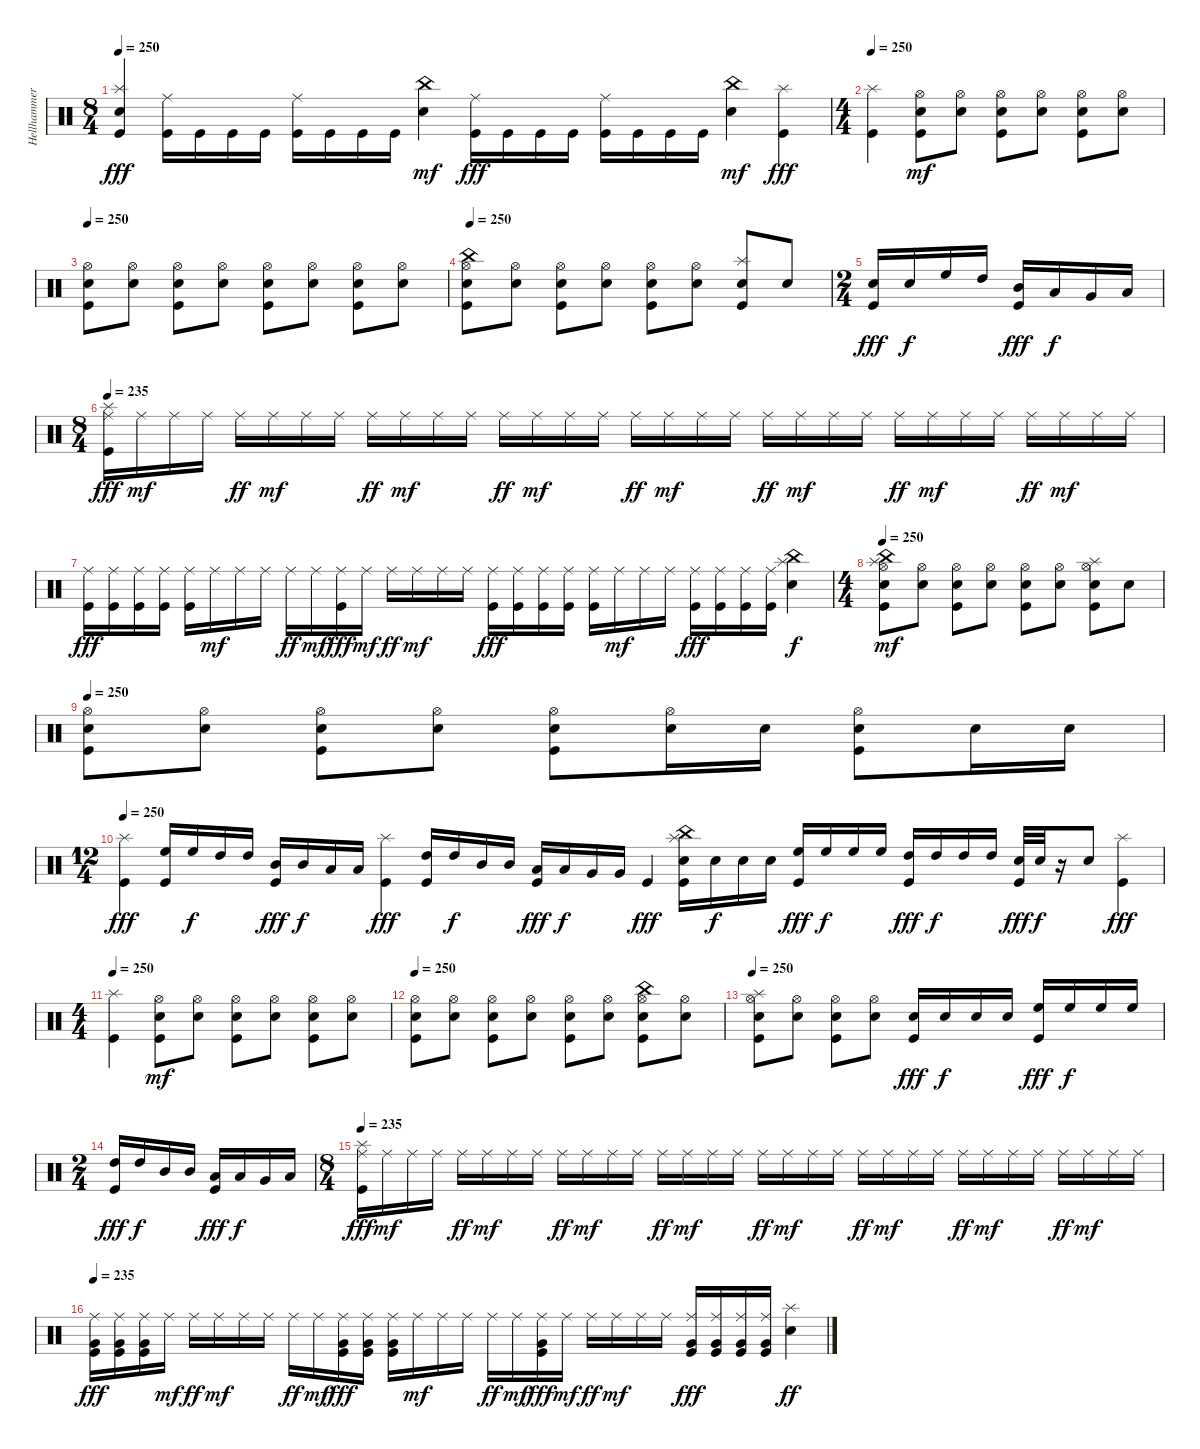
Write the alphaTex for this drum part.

\track ("Hellhammer" "Hellhammer") {instrument percussion}
\staff {score}
\articulation defaults
\ts (8 4)
\tempo 250
\clef neutral
\ks c
("Electric Snare (hit)" "Splash (hit)" "Kick (hit)").4{dy fff} ("Ride (middle)" "Kick (hit)").16 "Kick (hit)".16 "Kick (hit)".16 "Kick (hit)".16 ("Ride (middle)" "Kick (hit)").16 "Kick (hit)".16 "Kick (hit)".16 "Kick (hit)".16 ("China (hit)" "Electric Snare (hit)").4{dy mf} ("Ride (middle)" "Kick (hit)").16{dy fff} "Kick (hit)".16 "Kick (hit)".16 "Kick (hit)".16 ("Ride (middle)" "Kick (hit)").16 "Kick (hit)".16 "Kick (hit)".16 "Kick (hit)".16 ("China (hit)" "Electric Snare (hit)").4{dy mf} ("Splash (hit)" "Kick (hit)").4{dy fff} |
\ts (4 4)
\tempo 250
("Splash (hit)" "Kick (hit)").4 ("Hi-Hat (open)" "Kick (hit)" "Electric Snare (hit)").8{dy mf} ("Hi-Hat (open)" "Electric Snare (hit)").8 ("Hi-Hat (open)" "Kick (hit)" "Electric Snare (hit)").8 ("Hi-Hat (open)" "Electric Snare (hit)").8 ("Hi-Hat (open)" "Kick (hit)" "Electric Snare (hit)").8 ("Hi-Hat (open)" "Electric Snare (hit)").8 |
\tempo 250
("Hi-Hat (open)" "Kick (hit)" "Electric Snare (hit)").8 ("Hi-Hat (open)" "Electric Snare (hit)").8 ("Hi-Hat (open)" "Kick (hit)" "Electric Snare (hit)").8 ("Hi-Hat (open)" "Electric Snare (hit)").8 ("Hi-Hat (open)" "Kick (hit)" "Electric Snare (hit)").8 ("Hi-Hat (open)" "Electric Snare (hit)").8 ("Hi-Hat (open)" "Kick (hit)" "Electric Snare (hit)").8 ("Hi-Hat (open)" "Electric Snare (hit)").8 |
\tempo 250
("China (hit)" "Hi-Hat (open)" "Kick (hit)" "Electric Snare (hit)").8 ("Hi-Hat (open)" "Electric Snare (hit)").8 ("Hi-Hat (open)" "Kick (hit)" "Electric Snare (hit)").8 ("Hi-Hat (open)" "Electric Snare (hit)").8 ("Hi-Hat (open)" "Kick (hit)" "Electric Snare (hit)").8 ("Hi-Hat (open)" "Electric Snare (hit)").8 ("Splash (hit)" "Kick (hit)" "Electric Snare (hit)").8 "Electric Snare (hit)".8 |
\ts (2 4)
("Snare (hit) 2" "Kick (hit)").16{dy fff} "Snare (hit) 2".16{dy f} "High Floor Tom (hit)".16 "High Tom (hit)".16 ("Mid Tom (hit)" "Kick (hit)").16{dy fff} "Low Tom (hit)".16{dy f} "Very Low Tom (hit)".16 "Low Floor Tom (hit)".16 |
\ts (8 4)
\tempo 235
("Ride (middle)" "Splash (hit)" "Kick (hit)").16{dy fff} "Ride (middle)".16{dy mf} "Ride (middle)".16 "Ride (middle)".16 "Ride (middle)".16{dy ff} "Ride (middle)".16{dy mf} "Ride (middle)".16 "Ride (middle)".16 "Ride (middle)".16{dy ff} "Ride (middle)".16{dy mf} "Ride (middle)".16 "Ride (middle)".16 "Ride (middle)".16{dy ff} "Ride (middle)".16{dy mf} "Ride (middle)".16 "Ride (middle)".16 "Ride (middle)".16{dy ff} "Ride (middle)".16{dy mf} "Ride (middle)".16 "Ride (middle)".16 "Ride (middle)".16{dy ff} "Ride (middle)".16{dy mf} "Ride (middle)".16 "Ride (middle)".16 "Ride (middle)".16{dy ff} "Ride (middle)".16{dy mf} "Ride (middle)".16 "Ride (middle)".16 "Ride (middle)".16{dy ff} "Ride (middle)".16{dy mf} "Ride (middle)".16 "Ride (middle)".16 |
("Ride (middle)" "Kick (hit)").16{dy fff} ("Ride (middle)" "Kick (hit)").16 ("Ride (middle)" "Kick (hit)").16 ("Ride (middle)" "Kick (hit)").16 ("Ride (middle)" "Kick (hit)").16 "Ride (middle)".16{dy mf} "Ride (middle)".16 "Ride (middle)".16 "Ride (middle)".16{dy ff} "Ride (middle)".16{dy mf} ("Ride (middle)" "Kick (hit)").16{dy fff} "Ride (middle)".16{dy mf} "Ride (middle)".16{dy ff} "Ride (middle)".16{dy mf} "Ride (middle)".16 "Ride (middle)".16 ("Ride (middle)" "Kick (hit)").16{dy fff} ("Ride (middle)" "Kick (hit)").16 ("Ride (middle)" "Kick (hit)").16 ("Ride (middle)" "Kick (hit)").16 ("Ride (middle)" "Kick (hit)").16 "Ride (middle)".16{dy mf} "Ride (middle)".16 "Ride (middle)".16 ("Ride (middle)" "Kick (hit)").16{dy fff} ("Ride (middle)" "Kick (hit)").16 ("Ride (middle)" "Kick (hit)").16 ("Ride (middle)" "Kick (hit)").16 ("China (hit)" "Splash (hit)" "Electric Snare (hit)").4{dy f} |
\ts (4 4)
\tempo 250
("Splash (hit)" "China (hit)" "Hi-Hat (open)" "Kick (hit)" "Electric Snare (hit)").8{dy mf} ("Hi-Hat (open)" "Electric Snare (hit)").8 ("Hi-Hat (open)" "Kick (hit)" "Electric Snare (hit)").8 ("Hi-Hat (open)" "Electric Snare (hit)").8 ("Hi-Hat (open)" "Kick (hit)" "Electric Snare (hit)").8 ("Hi-Hat (open)" "Electric Snare (hit)").8 ("Hi-Hat (open)" "Splash (hit)" "Kick (hit)" "Electric Snare (hit)").8 "Electric Snare (hit)".8 |
\tempo 250
("Hi-Hat (open)" "Kick (hit)" "Electric Snare (hit)").8 ("Hi-Hat (open)" "Electric Snare (hit)").8 ("Hi-Hat (open)" "Kick (hit)" "Electric Snare (hit)").8 ("Hi-Hat (open)" "Electric Snare (hit)").8 ("Hi-Hat (open)" "Kick (hit)" "Electric Snare (hit)").8 ("Hi-Hat (open)" "Electric Snare (hit)").16 "Electric Snare (hit)".16 ("Hi-Hat (open)" "Kick (hit)" "Electric Snare (hit)").8 "Electric Snare (hit)".16 "Electric Snare (hit)".16 |
\ts (12 4)
\tempo 250
("Splash (hit)" "Kick (hit)").4{dy fff} ("High Floor Tom (hit)" "Kick (hit)").16 "High Floor Tom (hit)".16{dy f} "High Tom (hit)".16 "High Tom (hit)".16 ("Mid Tom (hit)" "Kick (hit)").16{dy fff} "Mid Tom (hit)".16{dy f} "Low Tom (hit)".16 "Low Tom (hit)".16 ("Splash (hit)" "Kick (hit)").4{dy fff} ("High Tom (hit)" "Kick (hit)").16 "High Tom (hit)".16{dy f} "Mid Tom (hit)".16 "Mid Tom (hit)".16 ("Low Tom (hit)" "Kick (hit)").16{dy fff} "Low Tom (hit)".16{dy f} "Very Low Tom (hit)".16 "Very Low Tom (hit)".16 "Kick (hit)".4{dy fff} ("China (hit)" "Splash (hit)" "Snare (hit) 2" "Kick (hit)").16 "Snare (hit) 2".16{dy f} "Snare (hit) 2".16 "Snare (hit) 2".16 ("High Floor Tom (hit)" "Kick (hit)").16{dy fff} "High Floor Tom (hit)".16{dy f} "High Floor Tom (hit)".16 "High Floor Tom (hit)".16 ("High Tom (hit)" "Kick (hit)").16{dy fff} "High Tom (hit)".16{dy f} "High Tom (hit)".16 "High Tom (hit)".16 ("Snare (hit) 2" "Kick (hit)").32{dy fff} "Snare (hit) 2".32{dy f} r.16 "Snare (hit) 2".8 ("Splash (hit)" "Kick (hit)").4{dy fff} |
\ts (4 4)
\tempo 250
("Splash (hit)" "Kick (hit)").4 ("Hi-Hat (open)" "Kick (hit)" "Electric Snare (hit)").8{dy mf} ("Hi-Hat (open)" "Electric Snare (hit)").8 ("Hi-Hat (open)" "Kick (hit)" "Electric Snare (hit)").8 ("Hi-Hat (open)" "Electric Snare (hit)").8 ("Hi-Hat (open)" "Kick (hit)" "Electric Snare (hit)").8 ("Hi-Hat (open)" "Electric Snare (hit)").8 |
\tempo 250
("Hi-Hat (open)" "Kick (hit)" "Electric Snare (hit)").8 ("Hi-Hat (open)" "Electric Snare (hit)").8 ("Hi-Hat (open)" "Kick (hit)" "Electric Snare (hit)").8 ("Hi-Hat (open)" "Electric Snare (hit)").8 ("Hi-Hat (open)" "Kick (hit)" "Electric Snare (hit)").8 ("Hi-Hat (open)" "Electric Snare (hit)").8 ("China (hit)" "Hi-Hat (open)" "Kick (hit)" "Electric Snare (hit)").8 ("Hi-Hat (open)" "Electric Snare (hit)").8 |
\tempo 250
("Splash (hit)" "Hi-Hat (open)" "Kick (hit)" "Electric Snare (hit)").8 ("Hi-Hat (open)" "Electric Snare (hit)").8 ("Hi-Hat (open)" "Kick (hit)" "Electric Snare (hit)").8 ("Hi-Hat (open)" "Electric Snare (hit)").8 ("Snare (hit) 2" "Kick (hit)").16{dy fff} "Snare (hit) 2".16{dy f} "Snare (hit) 2".16 "Snare (hit) 2".16 ("High Floor Tom (hit)" "Kick (hit)").16{dy fff} "High Floor Tom (hit)".16{dy f} "High Floor Tom (hit)".16 "High Floor Tom (hit)".16 |
\ts (2 4)
("High Tom (hit)" "Kick (hit)").16{dy fff} "High Tom (hit)".16{dy f} "Mid Tom (hit)".16 "Mid Tom (hit)".16 ("Low Tom (hit)" "Kick (hit)").16{dy fff} "Low Tom (hit)".16{dy f} "Very Low Tom (hit)".16 "Low Floor Tom (hit)".16 |
\ts (8 4)
\tempo 235
("Ride (middle)" "Splash (hit)" "Kick (hit)").16{dy fff} "Ride (middle)".16{dy mf} "Ride (middle)".16 "Ride (middle)".16 "Ride (middle)".16{dy ff} "Ride (middle)".16{dy mf} "Ride (middle)".16 "Ride (middle)".16 "Ride (middle)".16{dy ff} "Ride (middle)".16{dy mf} "Ride (middle)".16 "Ride (middle)".16 "Ride (middle)".16{dy ff} "Ride (middle)".16{dy mf} "Ride (middle)".16 "Ride (middle)".16 "Ride (middle)".16{dy ff} "Ride (middle)".16{dy mf} "Ride (middle)".16 "Ride (middle)".16 "Ride (middle)".16{dy ff} "Ride (middle)".16{dy mf} "Ride (middle)".16 "Ride (middle)".16 "Ride (middle)".16{dy ff} "Ride (middle)".16{dy mf} "Ride (middle)".16 "Ride (middle)".16 "Ride (middle)".16{dy ff} "Ride (middle)".16{dy mf} "Ride (middle)".16 "Ride (middle)".16 |
\tempo 235
("Ride (middle)" "Very Low Tom (hit)" "Kick (hit)").16{dy fff} ("Ride (middle)" "Very Low Tom (hit)" "Kick (hit)").16 ("Ride (middle)" "Very Low Tom (hit)" "Kick (hit)").16 "Ride (middle)".16{dy mf} "Ride (middle)".16{dy ff} "Ride (middle)".16{dy mf} "Ride (middle)".16 "Ride (middle)".16 "Ride (middle)".16{dy ff} "Ride (middle)".16{dy mf} ("Ride (middle)" "Very Low Tom (hit)" "Kick (hit)").16{dy fff} ("Ride (middle)" "Very Low Tom (hit)" "Kick (hit)").16 ("Ride (middle)" "Very Low Tom (hit)" "Kick (hit)").16 "Ride (middle)".16{dy mf} "Ride (middle)".16 "Ride (middle)".16 "Ride (middle)".16{dy ff} "Ride (middle)".16{dy mf} ("Ride (middle)" "Very Low Tom (hit)" "Kick (hit)").16{dy fff} "Ride (middle)".16{dy mf} "Ride (middle)".16{dy ff} "Ride (middle)".16{dy mf} "Ride (middle)".16 "Ride (middle)".16 ("Ride (middle)" "Very Low Tom (hit)" "Kick (hit)").16{dy fff} ("Ride (middle)" "Very Low Tom (hit)" "Kick (hit)").16 ("Ride (middle)" "Very Low Tom (hit)" "Kick (hit)").16 ("Ride (middle)" "Very Low Tom (hit)" "Kick (hit)").16 ("Splash (hit)" "Electric Snare (hit)").4{dy ff}
